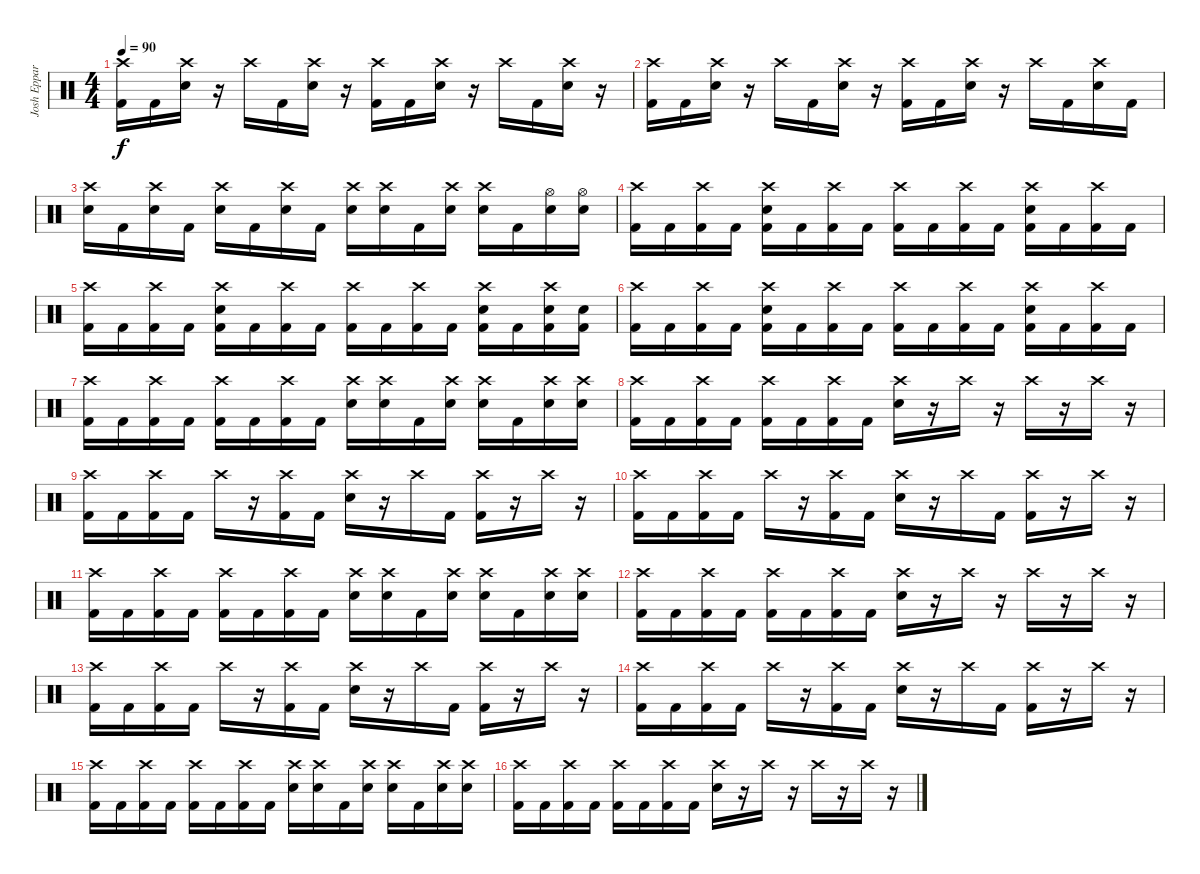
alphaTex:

\track ("Josh Eppard" "Josh Eppar") {instrument percussion}
\staff {score}
\articulation defaults
\ts (4 4)
\tempo 90
\clef neutral
\ks c
("Crash high (hit)" "Kick (hit) 2").16{dy f} "Kick (hit) 2".16 ("Crash high (hit)" "Electric Snare (hit)").16 r.16 "Crash high (hit)".16 "Kick (hit) 2".16 ("Crash high (hit)" "Electric Snare (hit)").16 r.16 ("Crash high (hit)" "Kick (hit) 2").16 "Kick (hit) 2".16 ("Crash high (hit)" "Electric Snare (hit)").16 r.16 "Crash high (hit)".16 "Kick (hit) 2".16 ("Crash high (hit)" "Electric Snare (hit)").16 r.16 |
("Crash high (hit)" "Kick (hit) 2").16 "Kick (hit) 2".16 ("Crash high (hit)" "Electric Snare (hit)").16 r.16 "Crash high (hit)".16 "Kick (hit) 2".16 ("Crash high (hit)" "Electric Snare (hit)").16 r.16 ("Crash high (hit)" "Kick (hit) 2").16 "Kick (hit) 2".16 ("Crash high (hit)" "Electric Snare (hit)").16 r.16 "Crash high (hit)".16 "Kick (hit) 2".16 ("Crash high (hit)" "Electric Snare (hit)").16 "Kick (hit) 2".16 |
("Crash high (hit)" "Electric Snare (hit)").16 "Kick (hit) 2".16 ("Crash high (hit)" "Electric Snare (hit)").16 "Kick (hit) 2".16 ("Crash high (hit)" "Electric Snare (hit)").16 "Kick (hit) 2".16 ("Crash high (hit)" "Electric Snare (hit)").16 "Kick (hit) 2".16 ("Crash high (hit)" "Electric Snare (hit)").16 ("Crash high (hit)" "Electric Snare (hit)").16 "Kick (hit) 2".16 ("Crash high (hit)" "Electric Snare (hit)").16 ("Crash high (hit)" "Electric Snare (hit)").16 "Kick (hit) 2".16 ("Hi-Hat (open)" "Electric Snare (hit)").16 ("Hi-Hat (open)" "Electric Snare (hit)").16 |
("Crash high (hit)" "Kick (hit) 2").16 "Kick (hit) 2".16 ("Crash high (hit)" "Kick (hit) 2").16 "Kick (hit) 2".16 ("Crash high (hit)" "Electric Snare (hit)" "Kick (hit) 2").16 "Kick (hit) 2".16 ("Crash high (hit)" "Kick (hit) 2").16 "Kick (hit) 2".16 ("Crash high (hit)" "Kick (hit) 2").16 "Kick (hit) 2".16 ("Crash high (hit)" "Kick (hit) 2").16 "Kick (hit) 2".16 ("Crash high (hit)" "Electric Snare (hit)" "Kick (hit) 2").16 "Kick (hit) 2".16 ("Crash high (hit)" "Kick (hit) 2").16 "Kick (hit) 2".16 |
("Crash high (hit)" "Kick (hit) 2").16 "Kick (hit) 2".16 ("Crash high (hit)" "Kick (hit) 2").16 "Kick (hit) 2".16 ("Crash high (hit)" "Electric Snare (hit)" "Kick (hit) 2").16 "Kick (hit) 2".16 ("Crash high (hit)" "Kick (hit) 2").16 "Kick (hit) 2".16 ("Crash high (hit)" "Kick (hit) 2").16 "Kick (hit) 2".16 ("Crash high (hit)" "Kick (hit) 2").16 "Kick (hit) 2".16 ("Crash high (hit)" "Electric Snare (hit)" "Kick (hit) 2").16 "Kick (hit) 2".16 ("Crash high (hit)" "Electric Snare (hit)" "Kick (hit) 2").16 ("Electric Snare (hit)" "Kick (hit) 2").16 |
("Crash high (hit)" "Kick (hit) 2").16 "Kick (hit) 2".16 ("Crash high (hit)" "Kick (hit) 2").16 "Kick (hit) 2".16 ("Crash high (hit)" "Electric Snare (hit)" "Kick (hit) 2").16 "Kick (hit) 2".16 ("Crash high (hit)" "Kick (hit) 2").16 "Kick (hit) 2".16 ("Crash high (hit)" "Kick (hit) 2").16 "Kick (hit) 2".16 ("Crash high (hit)" "Kick (hit) 2").16 "Kick (hit) 2".16 ("Crash high (hit)" "Electric Snare (hit)" "Kick (hit) 2").16 "Kick (hit) 2".16 ("Crash high (hit)" "Kick (hit) 2").16 "Kick (hit) 2".16 |
("Crash high (hit)" "Kick (hit) 2").16 "Kick (hit) 2".16 ("Crash high (hit)" "Kick (hit) 2").16 "Kick (hit) 2".16 ("Crash high (hit)" "Kick (hit) 2").16 "Kick (hit) 2".16 ("Crash high (hit)" "Kick (hit) 2").16 "Kick (hit) 2".16 ("Crash high (hit)" "Electric Snare (hit)").16 ("Crash high (hit)" "Electric Snare (hit)").16 "Kick (hit) 2".16 ("Crash high (hit)" "Electric Snare (hit)").16 ("Crash high (hit)" "Electric Snare (hit)").16 "Kick (hit) 2".16 ("Crash high (hit)" "Electric Snare (hit)").16 ("Crash high (hit)" "Electric Snare (hit)").16 |
("Crash high (hit)" "Kick (hit) 2").16 "Kick (hit) 2".16 ("Crash high (hit)" "Kick (hit) 2").16 "Kick (hit) 2".16 ("Crash high (hit)" "Kick (hit) 2").16 "Kick (hit) 2".16 ("Crash high (hit)" "Kick (hit) 2").16 "Kick (hit) 2".16 ("Crash high (hit)" "Electric Snare (hit)").16 r.16 "Crash high (hit)".16 r.16 "Crash high (hit)".16 r.16 "Crash high (hit)".16 r.16 |
("Crash high (hit)" "Kick (hit) 2").16 "Kick (hit) 2".16 ("Crash high (hit)" "Kick (hit) 2").16 "Kick (hit) 2".16 "Crash high (hit)".16 r.16 ("Crash high (hit)" "Kick (hit) 2").16 "Kick (hit) 2".16 ("Crash high (hit)" "Electric Snare (hit)").16 r.16 "Crash high (hit)".16 "Kick (hit) 2".16 ("Crash high (hit)" "Kick (hit) 2").16 r.16 "Crash high (hit)".16 r.16 |
("Crash high (hit)" "Kick (hit) 2").16 "Kick (hit) 2".16 ("Crash high (hit)" "Kick (hit) 2").16 "Kick (hit) 2".16 "Crash high (hit)".16 r.16 ("Crash high (hit)" "Kick (hit) 2").16 "Kick (hit) 2".16 ("Crash high (hit)" "Electric Snare (hit)").16 r.16 "Crash high (hit)".16 "Kick (hit) 2".16 ("Crash high (hit)" "Kick (hit) 2").16 r.16 "Crash high (hit)".16 r.16 |
("Crash high (hit)" "Kick (hit) 2").16 "Kick (hit) 2".16 ("Crash high (hit)" "Kick (hit) 2").16 "Kick (hit) 2".16 ("Crash high (hit)" "Kick (hit) 2").16 "Kick (hit) 2".16 ("Crash high (hit)" "Kick (hit) 2").16 "Kick (hit) 2".16 ("Crash high (hit)" "Electric Snare (hit)").16 ("Crash high (hit)" "Electric Snare (hit)").16 "Kick (hit) 2".16 ("Crash high (hit)" "Electric Snare (hit)").16 ("Crash high (hit)" "Electric Snare (hit)").16 "Kick (hit) 2".16 ("Crash high (hit)" "Electric Snare (hit)").16 ("Crash high (hit)" "Electric Snare (hit)").16 |
("Crash high (hit)" "Kick (hit) 2").16 "Kick (hit) 2".16 ("Crash high (hit)" "Kick (hit) 2").16 "Kick (hit) 2".16 ("Crash high (hit)" "Kick (hit) 2").16 "Kick (hit) 2".16 ("Crash high (hit)" "Kick (hit) 2").16 "Kick (hit) 2".16 ("Crash high (hit)" "Electric Snare (hit)").16 r.16 "Crash high (hit)".16 r.16 "Crash high (hit)".16 r.16 "Crash high (hit)".16 r.16 |
("Crash high (hit)" "Kick (hit) 2").16 "Kick (hit) 2".16 ("Crash high (hit)" "Kick (hit) 2").16 "Kick (hit) 2".16 "Crash high (hit)".16 r.16 ("Crash high (hit)" "Kick (hit) 2").16 "Kick (hit) 2".16 ("Crash high (hit)" "Electric Snare (hit)").16 r.16 "Crash high (hit)".16 "Kick (hit) 2".16 ("Crash high (hit)" "Kick (hit) 2").16 r.16 "Crash high (hit)".16 r.16 |
("Crash high (hit)" "Kick (hit) 2").16 "Kick (hit) 2".16 ("Crash high (hit)" "Kick (hit) 2").16 "Kick (hit) 2".16 "Crash high (hit)".16 r.16 ("Crash high (hit)" "Kick (hit) 2").16 "Kick (hit) 2".16 ("Crash high (hit)" "Electric Snare (hit)").16 r.16 "Crash high (hit)".16 "Kick (hit) 2".16 ("Crash high (hit)" "Kick (hit) 2").16 r.16 "Crash high (hit)".16 r.16 |
("Crash high (hit)" "Kick (hit) 2").16 "Kick (hit) 2".16 ("Crash high (hit)" "Kick (hit) 2").16 "Kick (hit) 2".16 ("Crash high (hit)" "Kick (hit) 2").16 "Kick (hit) 2".16 ("Crash high (hit)" "Kick (hit) 2").16 "Kick (hit) 2".16 ("Crash high (hit)" "Electric Snare (hit)").16 ("Crash high (hit)" "Electric Snare (hit)").16 "Kick (hit) 2".16 ("Crash high (hit)" "Electric Snare (hit)").16 ("Crash high (hit)" "Electric Snare (hit)").16 "Kick (hit) 2".16 ("Crash high (hit)" "Electric Snare (hit)").16 ("Crash high (hit)" "Electric Snare (hit)").16 |
("Crash high (hit)" "Kick (hit) 2").16 "Kick (hit) 2".16 ("Crash high (hit)" "Kick (hit) 2").16 "Kick (hit) 2".16 ("Crash high (hit)" "Kick (hit) 2").16 "Kick (hit) 2".16 ("Crash high (hit)" "Kick (hit) 2").16 "Kick (hit) 2".16 ("Crash high (hit)" "Electric Snare (hit)").16 r.16 "Crash high (hit)".16 r.16 "Crash high (hit)".16 r.16 "Crash high (hit)".16 r.16
